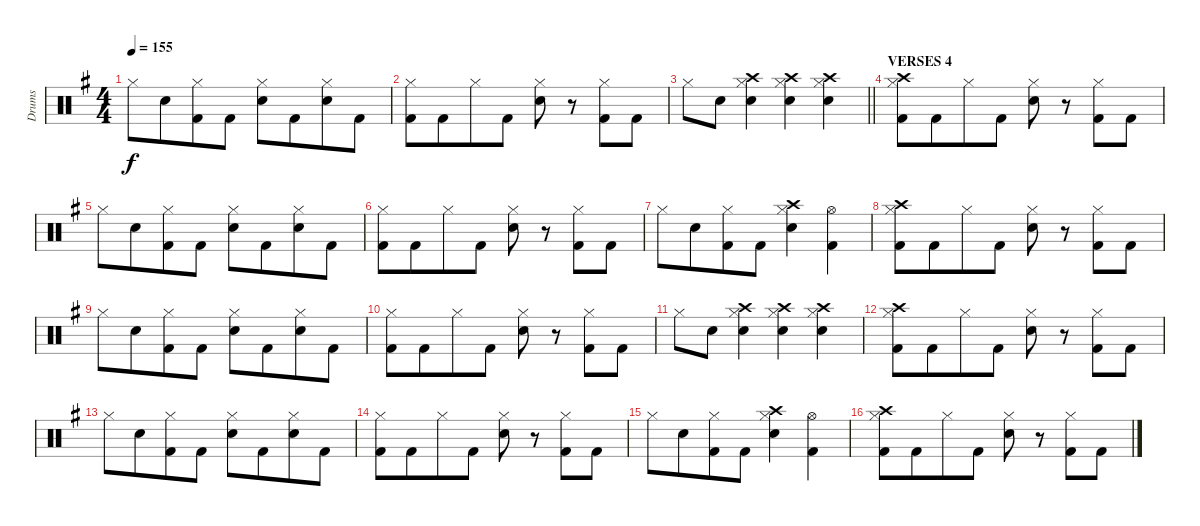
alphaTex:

\track ("Drums" "Drums") {instrument percussion}
\staff {score}
\articulation defaults
\ts (4 4)
\tempo 155
\clef neutral
\ks eminor "Hi-Hat (closed)".8{dy f} "Electric Snare (hit)".8{beam merge}
("Hi-Hat (closed)" "Kick (hit) 2").8 "Kick (hit) 2".8 ("Hi-Hat (closed)" "Electric Snare (hit)").8 "Kick (hit) 2".8{beam merge} ("Hi-Hat (closed)" "Electric Snare (hit)").8 "Kick (hit) 2".8 |
("Hi-Hat (closed)" "Kick (hit) 2").8 "Kick (hit) 2".8{beam merge} "Hi-Hat (closed)".8 "Kick (hit) 2".8 ("Hi-Hat (closed)" "Electric Snare (hit)").8 r.8 ("Hi-Hat (closed)" "Kick (hit) 2").8 "Kick (hit) 2".8 |
\barLineRight lightlight "Hi-Hat (closed)".8 "Electric Snare (hit)".8
("Crash high (hit)" "Hi-Hat (closed)" "Electric Snare (hit)").4 ("Crash high (hit)" "Hi-Hat (closed)" "Electric Snare (hit)").4 ("Crash high (hit)" "Hi-Hat (closed)" "Electric Snare (hit)").4 |
\section ("" "VERSES 4")
("Crash high (hit)" "Hi-Hat (closed)" "Kick (hit) 2").8 "Kick (hit) 2".8{beam merge} "Hi-Hat (closed)".8 "Kick (hit) 2".8 ("Hi-Hat (closed)" "Electric Snare (hit)").8 r.8 ("Hi-Hat (closed)" "Kick (hit) 2").8 "Kick (hit) 2".8 |
"Hi-Hat (closed)".8 "Electric Snare (hit)".8{beam merge} ("Hi-Hat (closed)" "Kick (hit) 2").8 "Kick (hit) 2".8 ("Hi-Hat (closed)" "Electric Snare (hit)").8 "Kick (hit) 2".8{beam merge} ("Hi-Hat (closed)" "Electric Snare (hit)").8 "Kick (hit) 2".8 |
("Hi-Hat (closed)" "Kick (hit) 2").8 "Kick (hit) 2".8{beam merge} "Hi-Hat (closed)".8 "Kick (hit) 2".8 ("Hi-Hat (closed)" "Electric Snare (hit)").8 r.8 ("Hi-Hat (closed)" "Kick (hit) 2").8 "Kick (hit) 2".8 |
"Hi-Hat (closed)".8 "Electric Snare (hit)".8{beam merge} ("Hi-Hat (closed)" "Kick (hit) 2").8 "Kick (hit) 2".8 ("Crash high (hit)" "Hi-Hat (closed)" "Electric Snare (hit)").4 ("Hi-Hat (open)" "Kick (hit) 2").4 |
("Crash high (hit)" "Hi-Hat (closed)" "Kick (hit) 2").8 "Kick (hit) 2".8{beam merge} "Hi-Hat (closed)".8 "Kick (hit) 2".8 ("Hi-Hat (closed)" "Electric Snare (hit)").8 r.8 ("Hi-Hat (closed)" "Kick (hit) 2").8 "Kick (hit) 2".8 |
"Hi-Hat (closed)".8 "Electric Snare (hit)".8{beam merge} ("Hi-Hat (closed)" "Kick (hit) 2").8 "Kick (hit) 2".8 ("Hi-Hat (closed)" "Electric Snare (hit)").8 "Kick (hit) 2".8{beam merge} ("Hi-Hat (closed)" "Electric Snare (hit)").8 "Kick (hit) 2".8 |
("Hi-Hat (closed)" "Kick (hit) 2").8 "Kick (hit) 2".8{beam merge} "Hi-Hat (closed)".8 "Kick (hit) 2".8 ("Hi-Hat (closed)" "Electric Snare (hit)").8 r.8 ("Hi-Hat (closed)" "Kick (hit) 2").8 "Kick (hit) 2".8 |
"Hi-Hat (closed)".8 "Electric Snare (hit)".8 ("Crash high (hit)" "Hi-Hat (closed)" "Electric Snare (hit)").4 ("Crash high (hit)" "Hi-Hat (closed)" "Electric Snare (hit)").4 ("Crash high (hit)" "Hi-Hat (closed)" "Electric Snare (hit)").4 |
("Crash high (hit)" "Hi-Hat (closed)" "Kick (hit) 2").8 "Kick (hit) 2".8{beam merge} "Hi-Hat (closed)".8 "Kick (hit) 2".8 ("Hi-Hat (closed)" "Electric Snare (hit)").8 r.8 ("Hi-Hat (closed)" "Kick (hit) 2").8 "Kick (hit) 2".8 |
"Hi-Hat (closed)".8 "Electric Snare (hit)".8{beam merge} ("Hi-Hat (closed)" "Kick (hit) 2").8 "Kick (hit) 2".8 ("Hi-Hat (closed)" "Electric Snare (hit)").8 "Kick (hit) 2".8{beam merge} ("Hi-Hat (closed)" "Electric Snare (hit)").8 "Kick (hit) 2".8 |
("Hi-Hat (closed)" "Kick (hit) 2").8 "Kick (hit) 2".8{beam merge} "Hi-Hat (closed)".8 "Kick (hit) 2".8 ("Hi-Hat (closed)" "Electric Snare (hit)").8 r.8 ("Hi-Hat (closed)" "Kick (hit) 2").8 "Kick (hit) 2".8 |
"Hi-Hat (closed)".8 "Electric Snare (hit)".8{beam merge} ("Hi-Hat (closed)" "Kick (hit) 2").8 "Kick (hit) 2".8 ("Crash high (hit)" "Hi-Hat (closed)" "Electric Snare (hit)").4 ("Hi-Hat (open)" "Kick (hit) 2").4 |
("Crash high (hit)" "Hi-Hat (closed)" "Kick (hit) 2").8 "Kick (hit) 2".8{beam merge} "Hi-Hat (closed)".8 "Kick (hit) 2".8 ("Hi-Hat (closed)" "Electric Snare (hit)").8 r.8 ("Hi-Hat (closed)" "Kick (hit) 2").8 "Kick (hit) 2".8
